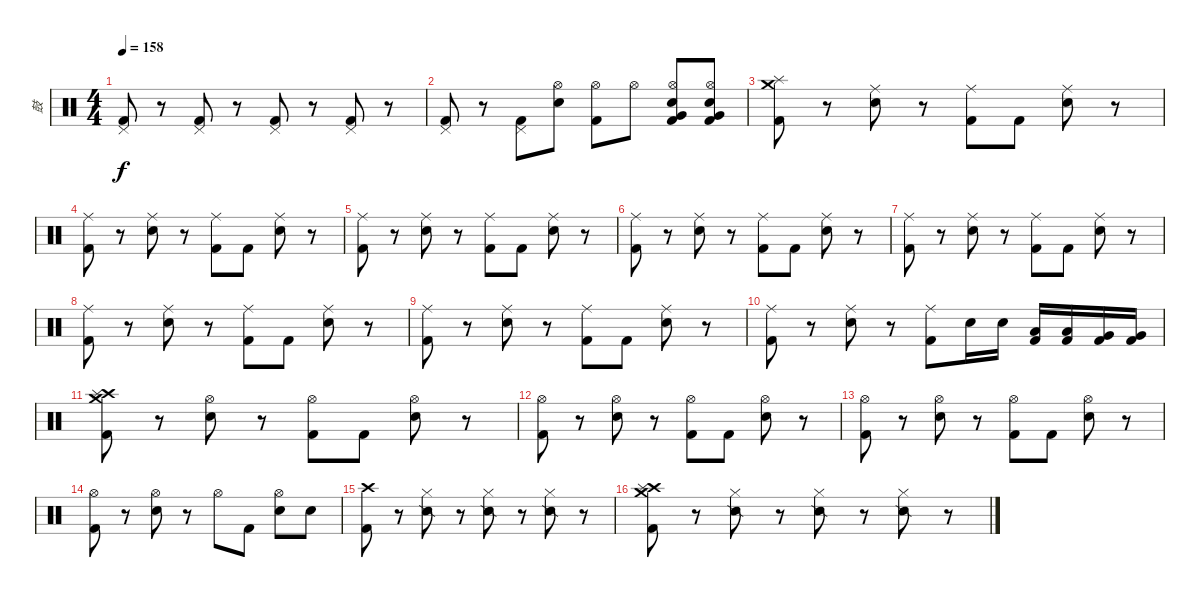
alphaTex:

\track ("鼓" "鼓") {instrument percussion}
\staff {score}
\articulation defaults
\ts (4 4)
\tempo 158
\clef neutral
\ks c
("Pedal Hi-Hat (hit)" "Kick (hit) 2").8{dy f} r.8 ("Pedal Hi-Hat (hit)" "Kick (hit) 2").8 r.8 ("Pedal Hi-Hat (hit)" "Kick (hit) 2").8 r.8 ("Pedal Hi-Hat (hit)" "Kick (hit) 2").8 r.8 |
("Pedal Hi-Hat (hit)" "Kick (hit) 2").8 r.8 ("Pedal Hi-Hat (hit)" "Kick (hit) 2").8 ("Hi-Hat (open)" "Electric Snare (hit)").8 ("Hi-Hat (open)" "Kick (hit) 2").8 "Hi-Hat (open)".8 ("Hi-Hat (open)" "Electric Snare (hit)" "Very Low Tom (hit)" "Kick (hit) 2").8 ("Hi-Hat (open)" "Electric Snare (hit)" "Very Low Tom (hit)" "Kick (hit) 2").8 |
("Crash medium (hit)" "Splash (hit)" "Kick (hit) 2").8 r.8 ("Ride (middle)" "Electric Snare (hit)").8 r.8 ("Ride (middle)" "Kick (hit) 2").8 "Kick (hit) 2".8 ("Ride (middle)" "Electric Snare (hit)").8 r.8 |
("Ride (middle)" "Kick (hit) 2").8 r.8 ("Ride (middle)" "Electric Snare (hit)").8 r.8 ("Ride (middle)" "Kick (hit) 2").8 "Kick (hit) 2".8 ("Ride (middle)" "Electric Snare (hit)").8 r.8 |
("Ride (middle)" "Kick (hit) 2").8 r.8 ("Ride (middle)" "Electric Snare (hit)").8 r.8 ("Ride (middle)" "Kick (hit) 2").8 "Kick (hit) 2".8 ("Ride (middle)" "Electric Snare (hit)").8 r.8 |
("Ride (middle)" "Kick (hit) 2").8 r.8 ("Ride (middle)" "Electric Snare (hit)").8 r.8 ("Ride (middle)" "Kick (hit) 2").8 "Kick (hit) 2".8 ("Ride (middle)" "Electric Snare (hit)").8 r.8 |
("Ride (middle)" "Kick (hit) 2").8 r.8 ("Ride (middle)" "Electric Snare (hit)").8 r.8 ("Ride (middle)" "Kick (hit) 2").8 "Kick (hit) 2".8 ("Ride (middle)" "Electric Snare (hit)").8 r.8 |
("Ride (middle)" "Kick (hit) 2").8 r.8 ("Ride (middle)" "Electric Snare (hit)").8 r.8 ("Ride (middle)" "Kick (hit) 2").8 "Kick (hit) 2".8 ("Ride (middle)" "Electric Snare (hit)").8 r.8 |
("Ride (middle)" "Kick (hit) 2").8 r.8 ("Ride (middle)" "Electric Snare (hit)").8 r.8 ("Ride (middle)" "Kick (hit) 2").8 "Kick (hit) 2".8 ("Ride (middle)" "Electric Snare (hit)").8 r.8 |
("Ride (middle)" "Kick (hit) 2").8 r.8 ("Ride (middle)" "Electric Snare (hit)").8 r.8 ("Ride (middle)" "Kick (hit) 2").8 "Electric Snare (hit)".16 "Electric Snare (hit)".16 ("Low Tom (hit)" "Kick (hit) 2").16 ("Low Tom (hit)" "Kick (hit) 2").16 ("Very Low Tom (hit)" "Kick (hit) 2").16 ("Very Low Tom (hit)" "Kick (hit) 2").16 |
("Crash high (hit)" "Splash (hit)" "Crash medium (hit)" "Kick (hit) 2").8 r.8 ("Hi-Hat (open)" "Electric Snare (hit)").8 r.8 ("Hi-Hat (open)" "Kick (hit) 2").8 "Kick (hit) 2".8 ("Hi-Hat (open)" "Electric Snare (hit)").8 r.8 |
("Hi-Hat (open)" "Kick (hit) 2").8 r.8 ("Hi-Hat (open)" "Electric Snare (hit)").8 r.8 ("Hi-Hat (open)" "Kick (hit) 2").8 "Kick (hit) 2".8 ("Hi-Hat (open)" "Electric Snare (hit)").8 r.8 |
("Hi-Hat (open)" "Kick (hit) 2").8 r.8 ("Hi-Hat (open)" "Electric Snare (hit)").8 r.8 ("Hi-Hat (open)" "Kick (hit) 2").8 "Kick (hit) 2".8 ("Hi-Hat (open)" "Electric Snare (hit)").8 r.8 |
("Hi-Hat (open)" "Kick (hit) 2").8 r.8 ("Hi-Hat (open)" "Electric Snare (hit)").8 r.8 "Hi-Hat (open)".8 "Kick (hit) 2".8 ("Hi-Hat (open)" "Electric Snare (hit)").8 "Electric Snare (hit)".8 |
("Crash high (hit)" "Kick (hit) 2").8 r.8 ("Snare (side stick) 2" "Hi-Hat (closed)").8 r.8 ("Snare (side stick) 2" "Hi-Hat (closed)").8 r.8 ("Snare (side stick) 2" "Hi-Hat (closed)").8 r.8 |
("Crash high (hit)" "Splash (hit)" "Crash medium (hit)" "Kick (hit) 2").8 r.8 ("Snare (side stick) 2" "Hi-Hat (closed)").8 r.8 ("Snare (side stick) 2" "Hi-Hat (closed)").8 r.8 ("Snare (side stick) 2" "Hi-Hat (closed)").8 r.8
